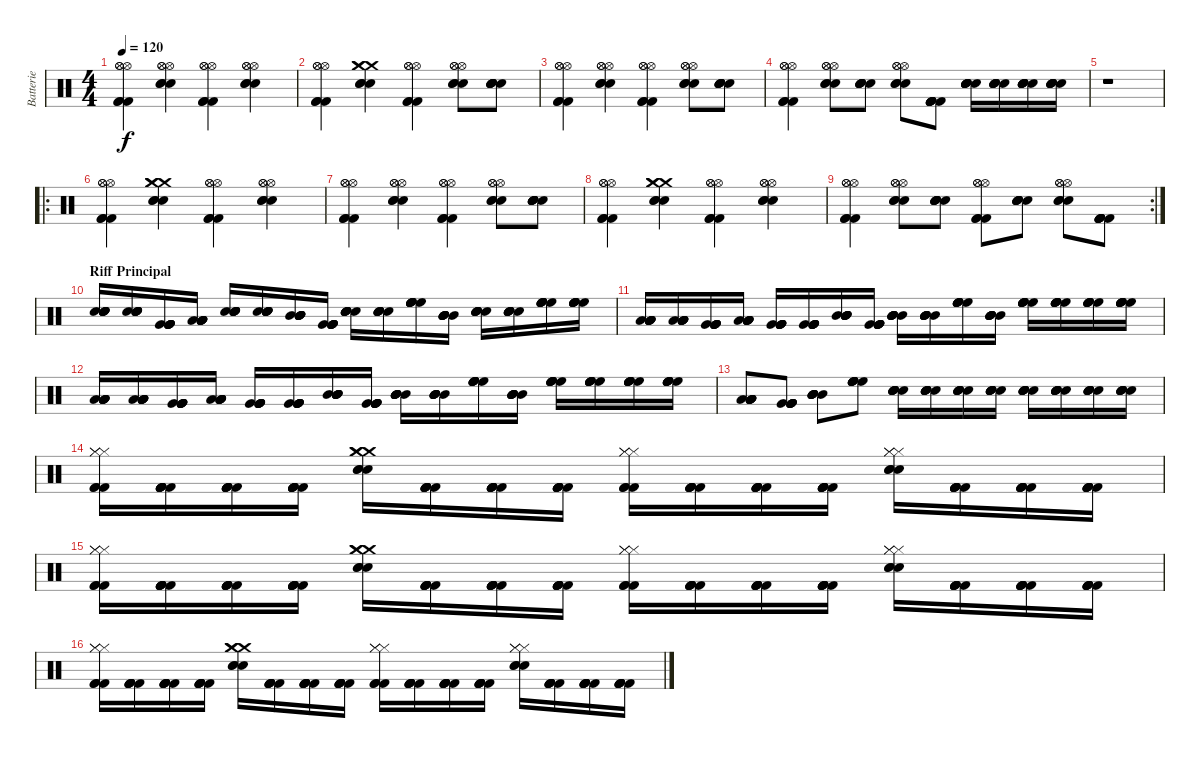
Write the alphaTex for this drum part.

\track ("Batterie" "Batterie") {instrument percussion}
\staff {score}
\articulation defaults
\ts (4 4)
\tempo 120
\clef neutral
\ks c
("Hi-Hat (open)" "Hi-Hat (open)" "Hi-Hat (open)" "Kick (hit) 2" "Kick (hit) 2" "Kick (hit) 2").4{dy f} ("Hi-Hat (open)" "Hi-Hat (open)" "Hi-Hat (open)" "Snare (hit) 2" "Snare (hit) 2" "Snare (hit) 2").4 ("Kick (hit) 2" "Kick (hit) 2" "Hi-Hat (open)" "Hi-Hat (open)" "Hi-Hat (open)" "Kick (hit) 2").4 ("Hi-Hat (open)" "Hi-Hat (open)" "Snare (hit) 2" "Snare (hit) 2" "Snare (hit) 2" "Hi-Hat (open)").4 |
("Hi-Hat (open)" "Hi-Hat (open)" "Hi-Hat (open)" "Kick (hit) 2" "Kick (hit) 2" "Kick (hit) 2").4 ("Crash medium (hit)" "Crash medium (hit)" "Crash medium (hit)" "Snare (hit) 2" "Snare (hit) 2" "Snare (hit) 2").4 ("Kick (hit) 2" "Kick (hit) 2" "Hi-Hat (open)" "Hi-Hat (open)" "Hi-Hat (open)" "Kick (hit) 2").4 ("Hi-Hat (open)" "Hi-Hat (open)" "Snare (hit) 2" "Snare (hit) 2" "Snare (hit) 2" "Hi-Hat (open)").8 ("Snare (hit) 2" "Snare (hit) 2" "Snare (hit) 2" "Snare (hit) 2" "Snare (hit) 2" "Snare (hit) 2").8 |
("Hi-Hat (open)" "Hi-Hat (open)" "Hi-Hat (open)" "Kick (hit) 2" "Kick (hit) 2" "Kick (hit) 2").4 ("Hi-Hat (open)" "Hi-Hat (open)" "Hi-Hat (open)" "Snare (hit) 2" "Snare (hit) 2" "Snare (hit) 2").4 ("Kick (hit) 2" "Kick (hit) 2" "Hi-Hat (open)" "Hi-Hat (open)" "Hi-Hat (open)" "Kick (hit) 2").4 ("Hi-Hat (open)" "Hi-Hat (open)" "Snare (hit) 2" "Snare (hit) 2" "Snare (hit) 2" "Hi-Hat (open)").8 ("Snare (hit) 2" "Snare (hit) 2" "Snare (hit) 2" "Snare (hit) 2" "Snare (hit) 2" "Snare (hit) 2").8 |
("Hi-Hat (open)" "Hi-Hat (open)" "Hi-Hat (open)" "Kick (hit) 2" "Kick (hit) 2" "Kick (hit) 2").4 ("Hi-Hat (open)" "Hi-Hat (open)" "Hi-Hat (open)" "Snare (hit) 2" "Snare (hit) 2" "Snare (hit) 2").8 ("Snare (hit) 2" "Snare (hit) 2" "Snare (hit) 2" "Snare (hit) 2" "Snare (hit) 2" "Snare (hit) 2").8 ("Hi-Hat (open)" "Hi-Hat (open)" "Hi-Hat (open)" "Snare (hit) 2" "Snare (hit) 2" "Snare (hit) 2").8 ("Kick (hit) 2" "Kick (hit) 2" "Kick (hit) 2" "Kick (hit) 2" "Kick (hit) 2" "Kick (hit) 2").8 ("Snare (hit) 2" "Snare (hit) 2" "Snare (hit) 2" "Snare (hit) 2" "Snare (hit) 2" "Snare (hit) 2").16 ("Snare (hit) 2" "Snare (hit) 2" "Snare (hit) 2" "Snare (hit) 2" "Snare (hit) 2" "Snare (hit) 2").16 ("Snare (hit) 2" "Snare (hit) 2" "Snare (hit) 2" "Snare (hit) 2" "Snare (hit) 2" "Snare (hit) 2").16 ("Snare (hit) 2" "Snare (hit) 2" "Snare (hit) 2" "Snare (hit) 2" "Snare (hit) 2" "Snare (hit) 2").16 |
r.1 |
\ro
("Hi-Hat (open)" "Hi-Hat (open)" "Hi-Hat (open)" "Kick (hit) 2" "Kick (hit) 2" "Kick (hit) 2").4 ("Crash medium (hit)" "Snare (hit) 2" "Crash medium (hit)" "Snare (hit) 2" "Snare (hit) 2" "Crash medium (hit)").4 ("Kick (hit) 2" "Kick (hit) 2" "Hi-Hat (open)" "Hi-Hat (open)" "Hi-Hat (open)" "Kick (hit) 2").4 ("Hi-Hat (open)" "Hi-Hat (open)" "Snare (hit) 2" "Snare (hit) 2" "Snare (hit) 2" "Hi-Hat (open)").4 |
("Hi-Hat (open)" "Hi-Hat (open)" "Hi-Hat (open)" "Kick (hit) 2" "Kick (hit) 2" "Kick (hit) 2").4 ("Hi-Hat (open)" "Hi-Hat (open)" "Hi-Hat (open)" "Snare (hit) 2" "Snare (hit) 2" "Snare (hit) 2").4 ("Kick (hit) 2" "Kick (hit) 2" "Hi-Hat (open)" "Hi-Hat (open)" "Hi-Hat (open)" "Kick (hit) 2").4 ("Hi-Hat (open)" "Hi-Hat (open)" "Snare (hit) 2" "Snare (hit) 2" "Snare (hit) 2" "Hi-Hat (open)").8 ("Snare (hit) 2" "Snare (hit) 2" "Snare (hit) 2" "Snare (hit) 2" "Snare (hit) 2" "Snare (hit) 2").8 |
("Hi-Hat (open)" "Hi-Hat (open)" "Hi-Hat (open)" "Kick (hit) 2" "Kick (hit) 2" "Kick (hit) 2").4 ("Crash medium (hit)" "Crash medium (hit)" "Crash medium (hit)" "Snare (hit) 2" "Snare (hit) 2" "Snare (hit) 2").4 ("Kick (hit) 2" "Kick (hit) 2" "Hi-Hat (open)" "Hi-Hat (open)" "Hi-Hat (open)" "Kick (hit) 2").4 ("Hi-Hat (open)" "Hi-Hat (open)" "Snare (hit) 2" "Snare (hit) 2" "Snare (hit) 2" "Hi-Hat (open)").4 |
\rc 2
("Hi-Hat (open)" "Hi-Hat (open)" "Hi-Hat (open)" "Kick (hit) 2" "Kick (hit) 2" "Kick (hit) 2").4 ("Hi-Hat (open)" "Hi-Hat (open)" "Hi-Hat (open)" "Snare (hit) 2" "Snare (hit) 2" "Snare (hit) 2").8 ("Snare (hit) 2" "Snare (hit) 2" "Snare (hit) 2" "Snare (hit) 2" "Snare (hit) 2" "Snare (hit) 2").8 ("Hi-Hat (open)" "Hi-Hat (open)" "Hi-Hat (open)" "Kick (hit) 2" "Kick (hit) 2" "Kick (hit) 2").8 ("Snare (hit) 2" "Snare (hit) 2" "Snare (hit) 2" "Snare (hit) 2" "Snare (hit) 2" "Snare (hit) 2").8 ("Hi-Hat (open)" "Hi-Hat (open)" "Hi-Hat (open)" "Snare (hit) 2" "Snare (hit) 2" "Snare (hit) 2").8 ("Kick (hit) 2" "Kick (hit) 2" "Kick (hit) 2" "Kick (hit) 2" "Kick (hit) 2" "Kick (hit) 2").8 |
\section ("" "Riff Principal")
("Snare (hit) 2" "Snare (hit) 2" "Snare (hit) 2" "Snare (hit) 2" "Snare (hit) 2" "Snare (hit) 2").16 ("Snare (hit) 2" "Snare (hit) 2" "Snare (hit) 2" "Snare (hit) 2" "Snare (hit) 2" "Snare (hit) 2").16 ("Very Low Tom (hit)" "Very Low Tom (hit)" "Very Low Tom (hit)" "Very Low Tom (hit)" "Very Low Tom (hit)" "Very Low Tom (hit)").16 ("Low Floor Tom (hit)" "Low Floor Tom (hit)" "Low Floor Tom (hit)" "Low Floor Tom (hit)" "Low Floor Tom (hit)" "Low Floor Tom (hit)").16 ("Snare (hit) 2" "Snare (hit) 2" "Snare (hit) 2" "Snare (hit) 2" "Snare (hit) 2" "Snare (hit) 2").16 ("Snare (hit) 2" "Snare (hit) 2" "Snare (hit) 2" "Snare (hit) 2" "Snare (hit) 2" "Snare (hit) 2").16 ("Mid Tom (hit)" "Mid Tom (hit)" "Mid Tom (hit)" "Mid Tom (hit)" "Mid Tom (hit)" "Mid Tom (hit)").16 ("Very Low Tom (hit)" "Very Low Tom (hit)" "Very Low Tom (hit)" "Very Low Tom (hit)" "Very Low Tom (hit)" "Very Low Tom (hit)").16 ("Snare (hit) 2" "Snare (hit) 2" "Snare (hit) 2" "Snare (hit) 2" "Snare (hit) 2" "Snare (hit) 2").16 ("Snare (hit) 2" "Snare (hit) 2" "Snare (hit) 2" "Snare (hit) 2" "Snare (hit) 2" "Snare (hit) 2").16 ("High Floor Tom (hit)" "High Floor Tom (hit)" "High Floor Tom (hit)" "High Floor Tom (hit)" "High Floor Tom (hit)" "High Floor Tom (hit)").16 ("Mid Tom (hit)" "Mid Tom (hit)" "Mid Tom (hit)" "Mid Tom (hit)" "Mid Tom (hit)" "Mid Tom (hit)").16 ("Snare (hit) 2" "Snare (hit) 2" "Snare (hit) 2" "Snare (hit) 2" "Snare (hit) 2" "Snare (hit) 2").16 ("Snare (hit) 2" "Snare (hit) 2" "Snare (hit) 2" "Snare (hit) 2" "Snare (hit) 2" "Snare (hit) 2").16 ("High Floor Tom (hit)" "High Floor Tom (hit)" "High Floor Tom (hit)" "High Floor Tom (hit)" "High Floor Tom (hit)" "High Floor Tom (hit)").16 ("High Floor Tom (hit)" "High Floor Tom (hit)" "High Floor Tom (hit)" "High Floor Tom (hit)" "High Floor Tom (hit)" "High Floor Tom (hit)").16 |
("Low Floor Tom (hit)" "Low Floor Tom (hit)" "Low Floor Tom (hit)" "Low Floor Tom (hit)" "Low Floor Tom (hit)" "Low Floor Tom (hit)").16 ("Low Floor Tom (hit)" "Low Floor Tom (hit)" "Low Floor Tom (hit)" "Low Floor Tom (hit)" "Low Floor Tom (hit)" "Low Floor Tom (hit)").16 ("Very Low Tom (hit)" "Very Low Tom (hit)" "Very Low Tom (hit)" "Very Low Tom (hit)" "Very Low Tom (hit)" "Very Low Tom (hit)").16 ("Low Floor Tom (hit)" "Low Floor Tom (hit)" "Low Floor Tom (hit)" "Low Floor Tom (hit)" "Low Floor Tom (hit)" "Low Floor Tom (hit)").16 ("Very Low Tom (hit)" "Very Low Tom (hit)" "Very Low Tom (hit)" "Very Low Tom (hit)" "Very Low Tom (hit)" "Very Low Tom (hit)").16 ("Very Low Tom (hit)" "Very Low Tom (hit)" "Very Low Tom (hit)" "Very Low Tom (hit)" "Very Low Tom (hit)" "Very Low Tom (hit)").16 ("Mid Tom (hit)" "Mid Tom (hit)" "Mid Tom (hit)" "Mid Tom (hit)" "Mid Tom (hit)" "Mid Tom (hit)").16 ("Very Low Tom (hit)" "Very Low Tom (hit)" "Very Low Tom (hit)" "Very Low Tom (hit)" "Very Low Tom (hit)" "Very Low Tom (hit)").16 ("Mid Tom (hit)" "Mid Tom (hit)" "Mid Tom (hit)" "Mid Tom (hit)" "Mid Tom (hit)" "Mid Tom (hit)").16 ("Mid Tom (hit)" "Mid Tom (hit)" "Mid Tom (hit)" "Mid Tom (hit)" "Mid Tom (hit)" "Mid Tom (hit)").16 ("High Floor Tom (hit)" "High Floor Tom (hit)" "High Floor Tom (hit)" "High Floor Tom (hit)" "High Floor Tom (hit)" "High Floor Tom (hit)").16 ("Mid Tom (hit)" "Mid Tom (hit)" "Mid Tom (hit)" "Mid Tom (hit)" "Mid Tom (hit)" "Mid Tom (hit)").16 ("High Floor Tom (hit)" "High Floor Tom (hit)" "High Floor Tom (hit)" "High Floor Tom (hit)" "High Floor Tom (hit)" "High Floor Tom (hit)").16 ("High Floor Tom (hit)" "High Floor Tom (hit)" "High Floor Tom (hit)" "High Floor Tom (hit)" "High Floor Tom (hit)" "High Floor Tom (hit)").16 ("High Floor Tom (hit)" "High Floor Tom (hit)" "High Floor Tom (hit)" "High Floor Tom (hit)" "High Floor Tom (hit)" "High Floor Tom (hit)").16 ("High Floor Tom (hit)" "High Floor Tom (hit)" "High Floor Tom (hit)" "High Floor Tom (hit)" "High Floor Tom (hit)" "High Floor Tom (hit)").16 |
("Low Floor Tom (hit)" "Low Floor Tom (hit)" "Low Floor Tom (hit)" "Low Floor Tom (hit)" "Low Floor Tom (hit)" "Low Floor Tom (hit)").16 ("Low Floor Tom (hit)" "Low Floor Tom (hit)" "Low Floor Tom (hit)" "Low Floor Tom (hit)" "Low Floor Tom (hit)" "Low Floor Tom (hit)").16 ("Very Low Tom (hit)" "Very Low Tom (hit)" "Very Low Tom (hit)" "Very Low Tom (hit)" "Very Low Tom (hit)" "Very Low Tom (hit)").16 ("Low Floor Tom (hit)" "Low Floor Tom (hit)" "Low Floor Tom (hit)" "Low Floor Tom (hit)" "Low Floor Tom (hit)" "Low Floor Tom (hit)").16 ("Very Low Tom (hit)" "Very Low Tom (hit)" "Very Low Tom (hit)" "Very Low Tom (hit)" "Very Low Tom (hit)" "Very Low Tom (hit)").16 ("Very Low Tom (hit)" "Very Low Tom (hit)" "Very Low Tom (hit)" "Very Low Tom (hit)" "Very Low Tom (hit)" "Very Low Tom (hit)").16 ("Mid Tom (hit)" "Mid Tom (hit)" "Mid Tom (hit)" "Mid Tom (hit)" "Mid Tom (hit)" "Mid Tom (hit)").16 ("Very Low Tom (hit)" "Very Low Tom (hit)" "Very Low Tom (hit)" "Very Low Tom (hit)" "Very Low Tom (hit)" "Very Low Tom (hit)").16 ("Mid Tom (hit)" "Mid Tom (hit)" "Mid Tom (hit)" "Mid Tom (hit)" "Mid Tom (hit)" "Mid Tom (hit)").16 ("Mid Tom (hit)" "Mid Tom (hit)" "Mid Tom (hit)" "Mid Tom (hit)" "Mid Tom (hit)" "Mid Tom (hit)").16 ("High Floor Tom (hit)" "High Floor Tom (hit)" "High Floor Tom (hit)" "High Floor Tom (hit)" "High Floor Tom (hit)" "High Floor Tom (hit)").16 ("Mid Tom (hit)" "Mid Tom (hit)" "Mid Tom (hit)" "Mid Tom (hit)" "Mid Tom (hit)" "Mid Tom (hit)").16 ("High Floor Tom (hit)" "High Floor Tom (hit)" "High Floor Tom (hit)" "High Floor Tom (hit)" "High Floor Tom (hit)" "High Floor Tom (hit)").16 ("High Floor Tom (hit)" "High Floor Tom (hit)" "High Floor Tom (hit)" "High Floor Tom (hit)" "High Floor Tom (hit)" "High Floor Tom (hit)").16 ("High Floor Tom (hit)" "High Floor Tom (hit)" "High Floor Tom (hit)" "High Floor Tom (hit)" "High Floor Tom (hit)" "High Floor Tom (hit)").16 ("High Floor Tom (hit)" "High Floor Tom (hit)" "High Floor Tom (hit)" "High Floor Tom (hit)" "High Floor Tom (hit)" "High Floor Tom (hit)").16 |
("Low Floor Tom (hit)" "Low Floor Tom (hit)" "Low Floor Tom (hit)" "Low Floor Tom (hit)" "Low Floor Tom (hit)" "Low Floor Tom (hit)").8 ("Very Low Tom (hit)" "Very Low Tom (hit)" "Very Low Tom (hit)" "Very Low Tom (hit)" "Very Low Tom (hit)" "Very Low Tom (hit)").8 ("Mid Tom (hit)" "Mid Tom (hit)" "Mid Tom (hit)" "Mid Tom (hit)" "Mid Tom (hit)" "Mid Tom (hit)").8 ("High Floor Tom (hit)" "High Floor Tom (hit)" "High Floor Tom (hit)" "High Floor Tom (hit)" "High Floor Tom (hit)" "High Floor Tom (hit)").8 ("Snare (hit) 2" "Snare (hit) 2" "Snare (hit) 2" "Snare (hit) 2" "Snare (hit) 2" "Snare (hit) 2").16 ("Snare (hit) 2" "Snare (hit) 2" "Snare (hit) 2" "Snare (hit) 2" "Snare (hit) 2" "Snare (hit) 2").16 ("Snare (hit) 2" "Snare (hit) 2" "Snare (hit) 2" "Snare (hit) 2" "Snare (hit) 2" "Snare (hit) 2").16 ("Snare (hit) 2" "Snare (hit) 2" "Snare (hit) 2" "Snare (hit) 2" "Snare (hit) 2" "Snare (hit) 2").16 ("Snare (hit) 2" "Snare (hit) 2" "Snare (hit) 2" "Snare (hit) 2" "Snare (hit) 2" "Snare (hit) 2").16 ("Snare (hit) 2" "Snare (hit) 2" "Snare (hit) 2" "Snare (hit) 2" "Snare (hit) 2" "Snare (hit) 2").16 ("Snare (hit) 2" "Snare (hit) 2" "Snare (hit) 2" "Snare (hit) 2" "Snare (hit) 2" "Snare (hit) 2").16 ("Snare (hit) 2" "Snare (hit) 2" "Snare (hit) 2" "Snare (hit) 2" "Snare (hit) 2" "Snare (hit) 2").16 |
("Hi-Hat (closed)" "Hi-Hat (closed)" "Hi-Hat (closed)" "Kick (hit) 2" "Kick (hit) 2" "Kick (hit) 2").16 ("Kick (hit) 2" "Kick (hit) 2" "Kick (hit) 2" "Kick (hit) 2" "Kick (hit) 2" "Kick (hit) 2").16 ("Kick (hit) 2" "Kick (hit) 2" "Kick (hit) 2" "Kick (hit) 2" "Kick (hit) 2" "Kick (hit) 2").16 ("Kick (hit) 2" "Kick (hit) 2" "Kick (hit) 2" "Kick (hit) 2" "Kick (hit) 2" "Kick (hit) 2").16 ("Crash medium (hit)" "Crash medium (hit)" "Crash medium (hit)" "Snare (hit) 2" "Snare (hit) 2" "Snare (hit) 2").16 ("Kick (hit) 2" "Kick (hit) 2" "Kick (hit) 2" "Kick (hit) 2" "Kick (hit) 2" "Kick (hit) 2").16 ("Kick (hit) 2" "Kick (hit) 2" "Kick (hit) 2" "Kick (hit) 2" "Kick (hit) 2" "Kick (hit) 2").16 ("Kick (hit) 2" "Kick (hit) 2" "Kick (hit) 2" "Kick (hit) 2" "Kick (hit) 2" "Kick (hit) 2").16 ("Kick (hit) 2" "Hi-Hat (closed)" "Hi-Hat (closed)" "Hi-Hat (closed)" "Kick (hit) 2" "Kick (hit) 2").16 ("Kick (hit) 2" "Kick (hit) 2" "Kick (hit) 2" "Kick (hit) 2" "Kick (hit) 2" "Kick (hit) 2").16 ("Kick (hit) 2" "Kick (hit) 2" "Kick (hit) 2" "Kick (hit) 2" "Kick (hit) 2" "Kick (hit) 2").16 ("Kick (hit) 2" "Kick (hit) 2" "Kick (hit) 2" "Kick (hit) 2" "Kick (hit) 2" "Kick (hit) 2").16 ("Snare (hit) 2" "Snare (hit) 2" "Snare (hit) 2" "Hi-Hat (closed)" "Hi-Hat (closed)" "Hi-Hat (closed)").16 ("Kick (hit) 2" "Kick (hit) 2" "Kick (hit) 2" "Kick (hit) 2" "Kick (hit) 2" "Kick (hit) 2").16 ("Kick (hit) 2" "Kick (hit) 2" "Kick (hit) 2" "Kick (hit) 2" "Kick (hit) 2" "Kick (hit) 2").16 ("Kick (hit) 2" "Kick (hit) 2" "Kick (hit) 2" "Kick (hit) 2" "Kick (hit) 2" "Kick (hit) 2").16 |
("Hi-Hat (closed)" "Hi-Hat (closed)" "Hi-Hat (closed)" "Kick (hit) 2" "Kick (hit) 2" "Kick (hit) 2").16 ("Kick (hit) 2" "Kick (hit) 2" "Kick (hit) 2" "Kick (hit) 2" "Kick (hit) 2" "Kick (hit) 2").16 ("Kick (hit) 2" "Kick (hit) 2" "Kick (hit) 2" "Kick (hit) 2" "Kick (hit) 2" "Kick (hit) 2").16 ("Kick (hit) 2" "Kick (hit) 2" "Kick (hit) 2" "Kick (hit) 2" "Kick (hit) 2" "Kick (hit) 2").16 ("Crash medium (hit)" "Crash medium (hit)" "Crash medium (hit)" "Snare (hit) 2" "Snare (hit) 2" "Snare (hit) 2").16 ("Kick (hit) 2" "Kick (hit) 2" "Kick (hit) 2" "Kick (hit) 2" "Kick (hit) 2" "Kick (hit) 2").16 ("Kick (hit) 2" "Kick (hit) 2" "Kick (hit) 2" "Kick (hit) 2" "Kick (hit) 2" "Kick (hit) 2").16 ("Kick (hit) 2" "Kick (hit) 2" "Kick (hit) 2" "Kick (hit) 2" "Kick (hit) 2" "Kick (hit) 2").16 ("Kick (hit) 2" "Hi-Hat (closed)" "Hi-Hat (closed)" "Hi-Hat (closed)" "Kick (hit) 2" "Kick (hit) 2").16 ("Kick (hit) 2" "Kick (hit) 2" "Kick (hit) 2" "Kick (hit) 2" "Kick (hit) 2" "Kick (hit) 2").16 ("Kick (hit) 2" "Kick (hit) 2" "Kick (hit) 2" "Kick (hit) 2" "Kick (hit) 2" "Kick (hit) 2").16 ("Kick (hit) 2" "Kick (hit) 2" "Kick (hit) 2" "Kick (hit) 2" "Kick (hit) 2" "Kick (hit) 2").16 ("Snare (hit) 2" "Snare (hit) 2" "Snare (hit) 2" "Hi-Hat (closed)" "Hi-Hat (closed)" "Hi-Hat (closed)").16 ("Kick (hit) 2" "Kick (hit) 2" "Kick (hit) 2" "Kick (hit) 2" "Kick (hit) 2" "Kick (hit) 2").16 ("Kick (hit) 2" "Kick (hit) 2" "Kick (hit) 2" "Kick (hit) 2" "Kick (hit) 2" "Kick (hit) 2").16 ("Kick (hit) 2" "Kick (hit) 2" "Kick (hit) 2" "Kick (hit) 2" "Kick (hit) 2" "Kick (hit) 2").16 |
("Hi-Hat (closed)" "Hi-Hat (closed)" "Hi-Hat (closed)" "Kick (hit) 2" "Kick (hit) 2" "Kick (hit) 2").16 ("Kick (hit) 2" "Kick (hit) 2" "Kick (hit) 2" "Kick (hit) 2" "Kick (hit) 2" "Kick (hit) 2").16 ("Kick (hit) 2" "Kick (hit) 2" "Kick (hit) 2" "Kick (hit) 2" "Kick (hit) 2" "Kick (hit) 2").16 ("Kick (hit) 2" "Kick (hit) 2" "Kick (hit) 2" "Kick (hit) 2" "Kick (hit) 2" "Kick (hit) 2").16 ("Crash medium (hit)" "Crash medium (hit)" "Crash medium (hit)" "Snare (hit) 2" "Snare (hit) 2" "Snare (hit) 2").16 ("Kick (hit) 2" "Kick (hit) 2" "Kick (hit) 2" "Kick (hit) 2" "Kick (hit) 2" "Kick (hit) 2").16 ("Kick (hit) 2" "Kick (hit) 2" "Kick (hit) 2" "Kick (hit) 2" "Kick (hit) 2" "Kick (hit) 2").16 ("Kick (hit) 2" "Kick (hit) 2" "Kick (hit) 2" "Kick (hit) 2" "Kick (hit) 2" "Kick (hit) 2").16 ("Kick (hit) 2" "Hi-Hat (closed)" "Hi-Hat (closed)" "Hi-Hat (closed)" "Kick (hit) 2" "Kick (hit) 2").16 ("Kick (hit) 2" "Kick (hit) 2" "Kick (hit) 2" "Kick (hit) 2" "Kick (hit) 2" "Kick (hit) 2").16 ("Kick (hit) 2" "Kick (hit) 2" "Kick (hit) 2" "Kick (hit) 2" "Kick (hit) 2" "Kick (hit) 2").16 ("Kick (hit) 2" "Kick (hit) 2" "Kick (hit) 2" "Kick (hit) 2" "Kick (hit) 2" "Kick (hit) 2").16 ("Snare (hit) 2" "Snare (hit) 2" "Snare (hit) 2" "Hi-Hat (closed)" "Hi-Hat (closed)" "Hi-Hat (closed)").16 ("Kick (hit) 2" "Kick (hit) 2" "Kick (hit) 2" "Kick (hit) 2" "Kick (hit) 2" "Kick (hit) 2").16 ("Kick (hit) 2" "Kick (hit) 2" "Kick (hit) 2" "Kick (hit) 2" "Kick (hit) 2" "Kick (hit) 2").16 ("Kick (hit) 2" "Kick (hit) 2" "Kick (hit) 2" "Kick (hit) 2" "Kick (hit) 2" "Kick (hit) 2").16
